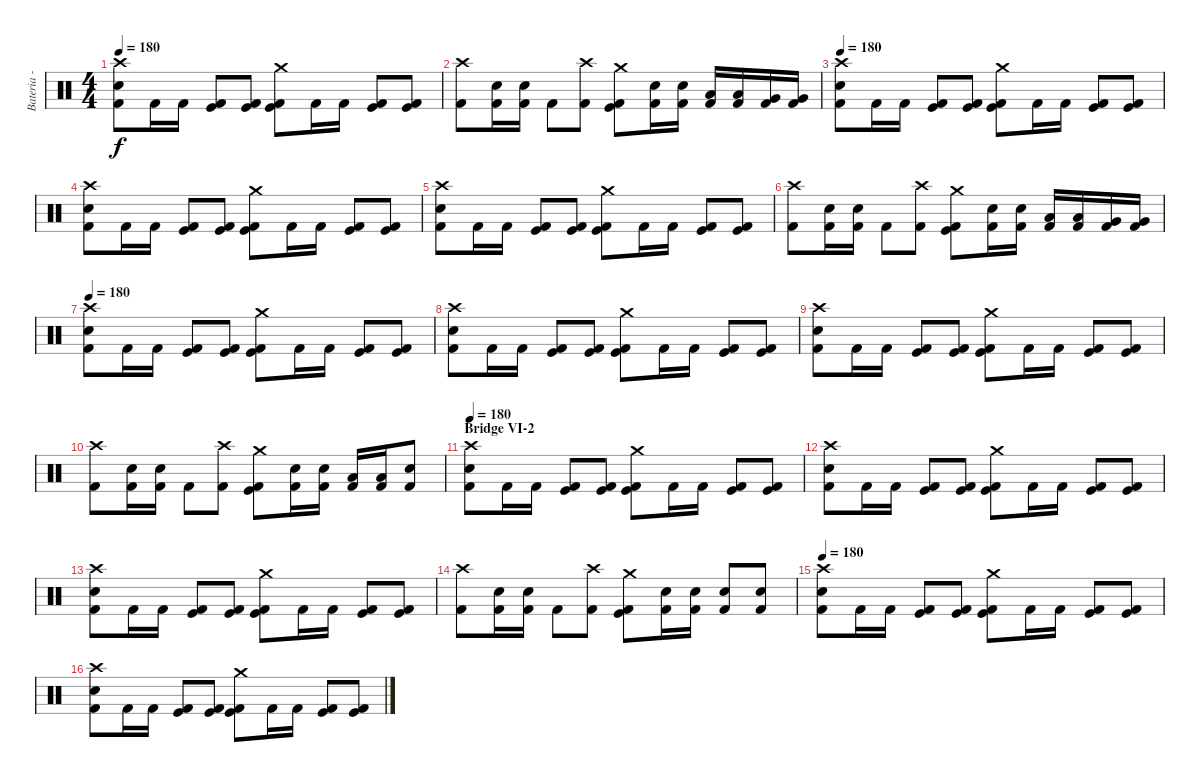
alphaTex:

\track ("Bateria - Drums" "Bateria - ") {instrument percussion}
\staff {score}
\articulation defaults
\ts (4 4)
\tempo 180
\clef neutral
\ks c
("Crash high (hit)" "Snare (hit) 2" "Kick (hit) 2").8{dy f} "Kick (hit) 2".16 "Kick (hit) 2".16 ("Kick (hit)" "Kick (hit) 2").8 ("Kick (hit)" "Kick (hit) 2").8 ("Crash medium (hit)" "Kick (hit)" "Kick (hit) 2").8 "Kick (hit) 2".16 "Kick (hit) 2".16 ("Kick (hit)" "Kick (hit) 2").8 ("Kick (hit)" "Kick (hit) 2").8 |
("Crash high (hit)" "Kick (hit) 2").8 ("Snare (hit) 2" "Kick (hit) 2").16 ("Snare (hit) 2" "Kick (hit) 2").16 "Kick (hit) 2".8 ("Crash high (hit)" "Kick (hit) 2").8 ("Crash medium (hit)" "Kick (hit)" "Kick (hit) 2").8 ("Electric Snare (hit)" "Kick (hit) 2").16 ("Electric Snare (hit)" "Kick (hit) 2").16 ("Low Tom (hit)" "Kick (hit) 2").16 ("Low Tom (hit)" "Kick (hit) 2").16 ("Very Low Tom (hit)" "Kick (hit) 2").16 ("Very Low Tom (hit)" "Kick (hit) 2").16 |
\tempo 180
("Crash high (hit)" "Snare (hit) 2" "Kick (hit) 2").8 "Kick (hit) 2".16 "Kick (hit) 2".16 ("Kick (hit)" "Kick (hit) 2").8 ("Kick (hit)" "Kick (hit) 2").8 ("Crash medium (hit)" "Kick (hit)" "Kick (hit) 2").8 "Kick (hit) 2".16 "Kick (hit) 2".16 ("Kick (hit)" "Kick (hit) 2").8 ("Kick (hit)" "Kick (hit) 2").8 |
("Crash high (hit)" "Snare (hit) 2" "Kick (hit) 2").8 "Kick (hit) 2".16 "Kick (hit) 2".16 ("Kick (hit)" "Kick (hit) 2").8 ("Kick (hit)" "Kick (hit) 2").8 ("Crash medium (hit)" "Kick (hit)" "Kick (hit) 2").8 "Kick (hit) 2".16 "Kick (hit) 2".16 ("Kick (hit)" "Kick (hit) 2").8 ("Kick (hit)" "Kick (hit) 2").8 |
("Crash high (hit)" "Snare (hit) 2" "Kick (hit) 2").8 "Kick (hit) 2".16 "Kick (hit) 2".16 ("Kick (hit)" "Kick (hit) 2").8 ("Kick (hit)" "Kick (hit) 2").8 ("Crash medium (hit)" "Kick (hit)" "Kick (hit) 2").8 "Kick (hit) 2".16 "Kick (hit) 2".16 ("Kick (hit)" "Kick (hit) 2").8 ("Kick (hit)" "Kick (hit) 2").8 |
("Crash high (hit)" "Kick (hit) 2").8 ("Snare (hit) 2" "Kick (hit) 2").16 ("Snare (hit) 2" "Kick (hit) 2").16 "Kick (hit) 2".8 ("Crash high (hit)" "Kick (hit) 2").8 ("Crash medium (hit)" "Kick (hit)" "Kick (hit) 2").8 ("Electric Snare (hit)" "Kick (hit) 2").16 ("Electric Snare (hit)" "Kick (hit) 2").16 ("Low Tom (hit)" "Kick (hit) 2").16 ("Low Tom (hit)" "Kick (hit) 2").16 ("Very Low Tom (hit)" "Kick (hit) 2").16 ("Very Low Tom (hit)" "Kick (hit) 2").16 |
\tempo 180
("Crash high (hit)" "Snare (hit) 2" "Kick (hit) 2").8 "Kick (hit) 2".16 "Kick (hit) 2".16 ("Kick (hit)" "Kick (hit) 2").8 ("Kick (hit)" "Kick (hit) 2").8 ("Crash medium (hit)" "Kick (hit)" "Kick (hit) 2").8 "Kick (hit) 2".16 "Kick (hit) 2".16 ("Kick (hit)" "Kick (hit) 2").8 ("Kick (hit)" "Kick (hit) 2").8 |
("Crash high (hit)" "Snare (hit) 2" "Kick (hit) 2").8 "Kick (hit) 2".16 "Kick (hit) 2".16 ("Kick (hit)" "Kick (hit) 2").8 ("Kick (hit)" "Kick (hit) 2").8 ("Crash medium (hit)" "Kick (hit)" "Kick (hit) 2").8 "Kick (hit) 2".16 "Kick (hit) 2".16 ("Kick (hit)" "Kick (hit) 2").8 ("Kick (hit)" "Kick (hit) 2").8 |
("Crash high (hit)" "Snare (hit) 2" "Kick (hit) 2").8 "Kick (hit) 2".16 "Kick (hit) 2".16 ("Kick (hit)" "Kick (hit) 2").8 ("Kick (hit)" "Kick (hit) 2").8 ("Crash medium (hit)" "Kick (hit)" "Kick (hit) 2").8 "Kick (hit) 2".16 "Kick (hit) 2".16 ("Kick (hit)" "Kick (hit) 2").8 ("Kick (hit)" "Kick (hit) 2").8 |
("Crash high (hit)" "Kick (hit) 2").8 ("Snare (hit) 2" "Kick (hit) 2").16 ("Snare (hit) 2" "Kick (hit) 2").16 "Kick (hit) 2".8 ("Crash high (hit)" "Kick (hit) 2").8 ("Crash medium (hit)" "Kick (hit)" "Kick (hit) 2").8 ("Electric Snare (hit)" "Kick (hit) 2").16 ("Electric Snare (hit)" "Kick (hit) 2").16 ("Low Tom (hit)" "Kick (hit) 2").16 ("Low Tom (hit)" "Kick (hit) 2").16 ("Electric Snare (hit)" "Kick (hit) 2").8 |
\section ("" "Bridge VI-2")
\tempo 180
("Crash high (hit)" "Snare (hit) 2" "Kick (hit) 2").8 "Kick (hit) 2".16 "Kick (hit) 2".16 ("Kick (hit)" "Kick (hit) 2").8 ("Kick (hit)" "Kick (hit) 2").8 ("Crash medium (hit)" "Kick (hit)" "Kick (hit) 2").8 "Kick (hit) 2".16 "Kick (hit) 2".16 ("Kick (hit)" "Kick (hit) 2").8 ("Kick (hit)" "Kick (hit) 2").8 |
("Crash high (hit)" "Snare (hit) 2" "Kick (hit) 2").8 "Kick (hit) 2".16 "Kick (hit) 2".16 ("Kick (hit)" "Kick (hit) 2").8 ("Kick (hit)" "Kick (hit) 2").8 ("Crash medium (hit)" "Kick (hit)" "Kick (hit) 2").8 "Kick (hit) 2".16 "Kick (hit) 2".16 ("Kick (hit)" "Kick (hit) 2").8 ("Kick (hit)" "Kick (hit) 2").8 |
("Crash high (hit)" "Snare (hit) 2" "Kick (hit) 2").8 "Kick (hit) 2".16 "Kick (hit) 2".16 ("Kick (hit)" "Kick (hit) 2").8 ("Kick (hit)" "Kick (hit) 2").8 ("Crash medium (hit)" "Kick (hit)" "Kick (hit) 2").8 "Kick (hit) 2".16 "Kick (hit) 2".16 ("Kick (hit)" "Kick (hit) 2").8 ("Kick (hit)" "Kick (hit) 2").8 |
("Crash high (hit)" "Kick (hit) 2").8 ("Snare (hit) 2" "Kick (hit) 2").16 ("Snare (hit) 2" "Kick (hit) 2").16 "Kick (hit) 2".8 ("Crash high (hit)" "Kick (hit) 2").8 ("Crash medium (hit)" "Kick (hit)" "Kick (hit) 2").8 ("Snare (hit) 2" "Kick (hit) 2").16 ("Snare (hit) 2" "Kick (hit) 2").16 ("Snare (hit) 2" "Kick (hit) 2").8 ("Snare (hit) 2" "Kick (hit) 2").8 |
\tempo 180
("Crash high (hit)" "Snare (hit) 2" "Kick (hit) 2").8 "Kick (hit) 2".16 "Kick (hit) 2".16 ("Kick (hit)" "Kick (hit) 2").8 ("Kick (hit)" "Kick (hit) 2").8 ("Crash medium (hit)" "Kick (hit)" "Kick (hit) 2").8 "Kick (hit) 2".16 "Kick (hit) 2".16 ("Kick (hit)" "Kick (hit) 2").8 ("Kick (hit)" "Kick (hit) 2").8 |
("Crash high (hit)" "Snare (hit) 2" "Kick (hit) 2").8 "Kick (hit) 2".16 "Kick (hit) 2".16 ("Kick (hit)" "Kick (hit) 2").8 ("Kick (hit)" "Kick (hit) 2").8 ("Crash medium (hit)" "Kick (hit)" "Kick (hit) 2").8 "Kick (hit) 2".16 "Kick (hit) 2".16 ("Kick (hit)" "Kick (hit) 2").8 ("Kick (hit)" "Kick (hit) 2").8
